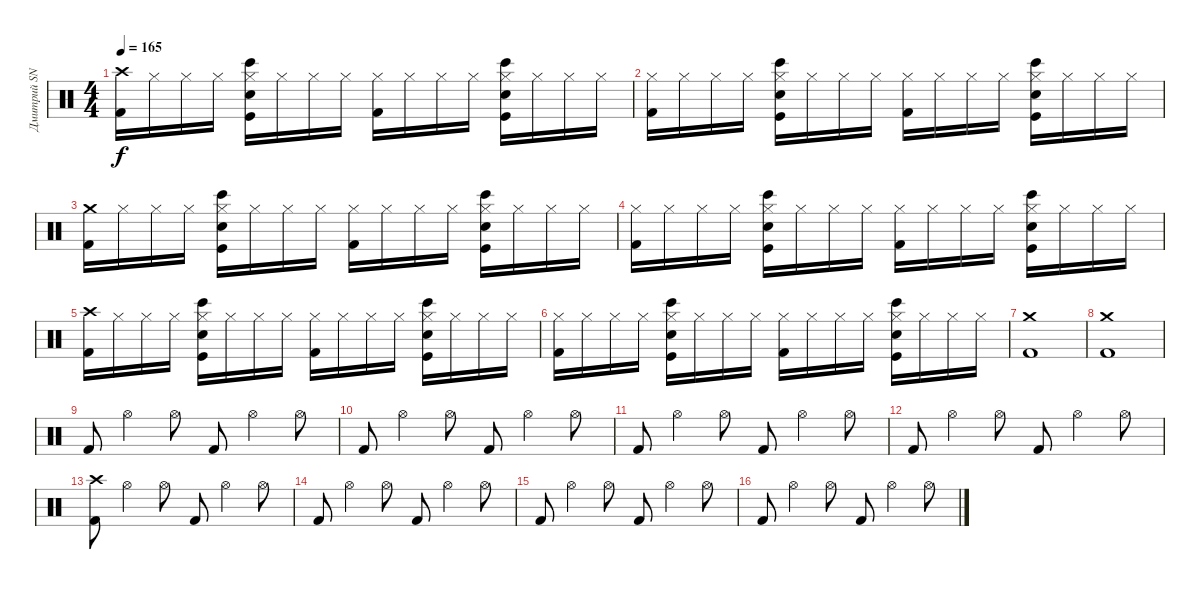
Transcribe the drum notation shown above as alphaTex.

\track ("Дмитрий SNAKE Хакимов" "Дмитрий SN") {instrument percussion}
\staff {score}
\articulation defaults
\ts (4 4)
\tempo 165
\clef neutral
\ks c
("Crash high (hit)" "Kick (hit) 2").16{dy f} "Hi-Hat (closed)".16 "Hi-Hat (closed)".16 "Hi-Hat (closed)".16 ("Hi-Hat (closed)" "Electric Snare (hit)" "Bongo High (hit)" "Kick (hit)").16 "Hi-Hat (closed)".16 "Hi-Hat (closed)".16 "Hi-Hat (closed)".16 ("Hi-Hat (closed)" "Kick (hit) 2").16 "Hi-Hat (closed)".16 "Hi-Hat (closed)".16 "Hi-Hat (closed)".16 ("Hi-Hat (closed)" "Electric Snare (hit)" "Bongo High (hit)" "Kick (hit)").16 "Hi-Hat (closed)".16 "Hi-Hat (closed)".16 "Hi-Hat (closed)".16 |
("Hi-Hat (closed)" "Kick (hit) 2").16 "Hi-Hat (closed)".16 "Hi-Hat (closed)".16 "Hi-Hat (closed)".16 ("Hi-Hat (closed)" "Electric Snare (hit)" "Bongo High (hit)" "Kick (hit)").16 "Hi-Hat (closed)".16 "Hi-Hat (closed)".16 "Hi-Hat (closed)".16 ("Hi-Hat (closed)" "Kick (hit) 2").16 "Hi-Hat (closed)".16 "Hi-Hat (closed)".16 "Hi-Hat (closed)".16 ("Hi-Hat (closed)" "Electric Snare (hit)" "Bongo High (hit)" "Kick (hit)").16 "Hi-Hat (closed)".16 "Hi-Hat (closed)".16 "Hi-Hat (closed)".16 |
("Crash medium (hit)" "Kick (hit) 2").16 "Hi-Hat (closed)".16 "Hi-Hat (closed)".16 "Hi-Hat (closed)".16 ("Hi-Hat (closed)" "Electric Snare (hit)" "Bongo High (hit)" "Kick (hit)").16 "Hi-Hat (closed)".16 "Hi-Hat (closed)".16 "Hi-Hat (closed)".16 ("Hi-Hat (closed)" "Kick (hit) 2").16 "Hi-Hat (closed)".16 "Hi-Hat (closed)".16 "Hi-Hat (closed)".16 ("Hi-Hat (closed)" "Electric Snare (hit)" "Bongo High (hit)" "Kick (hit)").16 "Hi-Hat (closed)".16 "Hi-Hat (closed)".16 "Hi-Hat (closed)".16 |
("Hi-Hat (closed)" "Kick (hit) 2").16 "Hi-Hat (closed)".16 "Hi-Hat (closed)".16 "Hi-Hat (closed)".16 ("Hi-Hat (closed)" "Electric Snare (hit)" "Bongo High (hit)" "Kick (hit)").16 "Hi-Hat (closed)".16 "Hi-Hat (closed)".16 "Hi-Hat (closed)".16 ("Hi-Hat (closed)" "Kick (hit) 2").16 "Hi-Hat (closed)".16 "Hi-Hat (closed)".16 "Hi-Hat (closed)".16 ("Hi-Hat (closed)" "Electric Snare (hit)" "Bongo High (hit)" "Kick (hit)").16 "Hi-Hat (closed)".16 "Hi-Hat (closed)".16 "Hi-Hat (closed)".16 |
("Crash high (hit)" "Kick (hit) 2").16 "Hi-Hat (closed)".16 "Hi-Hat (closed)".16 "Hi-Hat (closed)".16 ("Hi-Hat (closed)" "Electric Snare (hit)" "Bongo High (hit)" "Kick (hit)").16 "Hi-Hat (closed)".16 "Hi-Hat (closed)".16 "Hi-Hat (closed)".16 ("Hi-Hat (closed)" "Kick (hit) 2").16 "Hi-Hat (closed)".16 "Hi-Hat (closed)".16 "Hi-Hat (closed)".16 ("Hi-Hat (closed)" "Electric Snare (hit)" "Bongo High (hit)" "Kick (hit)").16 "Hi-Hat (closed)".16 "Hi-Hat (closed)".16 "Hi-Hat (closed)".16 |
("Hi-Hat (closed)" "Kick (hit) 2").16 "Hi-Hat (closed)".16 "Hi-Hat (closed)".16 "Hi-Hat (closed)".16 ("Hi-Hat (closed)" "Electric Snare (hit)" "Bongo High (hit)" "Kick (hit)").16 "Hi-Hat (closed)".16 "Hi-Hat (closed)".16 "Hi-Hat (closed)".16 ("Hi-Hat (closed)" "Kick (hit) 2").16 "Hi-Hat (closed)".16 "Hi-Hat (closed)".16 "Hi-Hat (closed)".16 ("Hi-Hat (closed)" "Electric Snare (hit)" "Bongo High (hit)" "Kick (hit)").16 "Hi-Hat (closed)".16 "Hi-Hat (closed)".16 "Hi-Hat (closed)".16 |
("Crash medium (hit)" "Kick (hit) 2").1 |
("Crash medium (hit)" "Kick (hit) 2").1 |
"Kick (hit) 2".8 "Hi-Hat (open)".4 "Hi-Hat (open)".8 "Kick (hit) 2".8 "Hi-Hat (open)".4 "Hi-Hat (open)".8 |
"Kick (hit) 2".8 "Hi-Hat (open)".4 "Hi-Hat (open)".8 "Kick (hit) 2".8 "Hi-Hat (open)".4 "Hi-Hat (open)".8 |
"Kick (hit) 2".8 "Hi-Hat (open)".4 "Hi-Hat (open)".8 "Kick (hit) 2".8 "Hi-Hat (open)".4 "Hi-Hat (open)".8 |
"Kick (hit) 2".8 "Hi-Hat (open)".4 "Hi-Hat (open)".8 "Kick (hit) 2".8 "Hi-Hat (open)".4 "Hi-Hat (open)".8 |
("Crash high (hit)" "Kick (hit) 2").8 "Hi-Hat (open)".4 "Hi-Hat (open)".8 "Kick (hit) 2".8 "Hi-Hat (open)".4 "Hi-Hat (open)".8 |
"Kick (hit) 2".8 "Hi-Hat (open)".4 "Hi-Hat (open)".8 "Kick (hit) 2".8 "Hi-Hat (open)".4 "Hi-Hat (open)".8 |
"Kick (hit) 2".8 "Hi-Hat (open)".4 "Hi-Hat (open)".8 "Kick (hit) 2".8 "Hi-Hat (open)".4 "Hi-Hat (open)".8 |
"Kick (hit) 2".8 "Hi-Hat (open)".4 "Hi-Hat (open)".8 "Kick (hit) 2".8 "Hi-Hat (open)".4 "Hi-Hat (open)".8
